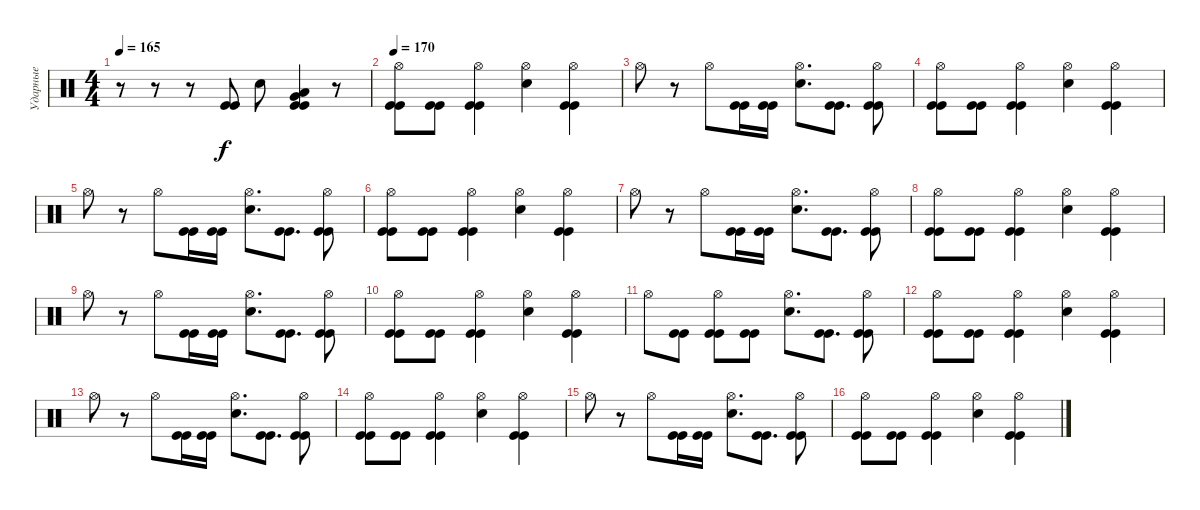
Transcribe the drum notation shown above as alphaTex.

\track ("Ударные" "Ударные") {instrument percussion}
\staff {score}
\articulation defaults
\ts (4 4)
\tempo 165
\clef neutral
\ks c
r.8{dy f} r.8 r.8 ("Kick (hit)" "Kick (hit)").8 "Snare (hit) 2".8 ("Very Low Tom (hit)" "Low Floor Tom (hit)" "Kick (hit)" "Kick (hit)").4 r.8 |
\tempo 170
("Hi-Hat (open)" "Kick (hit)" "Kick (hit)").8 ("Kick (hit)" "Kick (hit)").8 ("Hi-Hat (open)" "Kick (hit)" "Kick (hit)").4 ("Hi-Hat (open)" "Snare (hit) 2").4 ("Hi-Hat (open)" "Kick (hit)" "Kick (hit)").4 |
"Hi-Hat (open)".8 r.8 "Hi-Hat (open)".8 ("Kick (hit)" "Kick (hit)").16 ("Kick (hit)" "Kick (hit)").16 ("Hi-Hat (open)" "Snare (hit) 2").8{d} ("Kick (hit)" "Kick (hit)").8{d} ("Hi-Hat (open)" "Kick (hit)" "Kick (hit)").8 |
("Hi-Hat (open)" "Kick (hit)" "Kick (hit)").8 ("Kick (hit)" "Kick (hit)").8 ("Hi-Hat (open)" "Kick (hit)" "Kick (hit)").4 ("Hi-Hat (open)" "Snare (hit) 2").4 ("Hi-Hat (open)" "Kick (hit)" "Kick (hit)").4 |
"Hi-Hat (open)".8 r.8 "Hi-Hat (open)".8 ("Kick (hit)" "Kick (hit)").16 ("Kick (hit)" "Kick (hit)").16 ("Hi-Hat (open)" "Snare (hit) 2").8{d} ("Kick (hit)" "Kick (hit)").8{d} ("Hi-Hat (open)" "Kick (hit)" "Kick (hit)").8 |
("Hi-Hat (open)" "Kick (hit)" "Kick (hit)").8 ("Kick (hit)" "Kick (hit)").8 ("Hi-Hat (open)" "Kick (hit)" "Kick (hit)").4 ("Hi-Hat (open)" "Snare (hit) 2").4 ("Hi-Hat (open)" "Kick (hit)" "Kick (hit)").4 |
"Hi-Hat (open)".8 r.8 "Hi-Hat (open)".8 ("Kick (hit)" "Kick (hit)").16 ("Kick (hit)" "Kick (hit)").16 ("Hi-Hat (open)" "Snare (hit) 2").8{d} ("Kick (hit)" "Kick (hit)").8{d} ("Hi-Hat (open)" "Kick (hit)" "Kick (hit)").8 |
("Hi-Hat (open)" "Kick (hit)" "Kick (hit)").8 ("Kick (hit)" "Kick (hit)").8 ("Hi-Hat (open)" "Kick (hit)" "Kick (hit)").4 ("Hi-Hat (open)" "Snare (hit) 2").4 ("Hi-Hat (open)" "Kick (hit)" "Kick (hit)").4 |
"Hi-Hat (open)".8 r.8 "Hi-Hat (open)".8 ("Kick (hit)" "Kick (hit)").16 ("Kick (hit)" "Kick (hit)").16 ("Hi-Hat (open)" "Snare (hit) 2").8{d} ("Kick (hit)" "Kick (hit)").8{d} ("Hi-Hat (open)" "Kick (hit)" "Kick (hit)").8 |
("Hi-Hat (open)" "Kick (hit)" "Kick (hit)").8 ("Kick (hit)" "Kick (hit)").8 ("Hi-Hat (open)" "Kick (hit)" "Kick (hit)").4 ("Hi-Hat (open)" "Snare (hit) 2").4 ("Hi-Hat (open)" "Kick (hit)" "Kick (hit)").4 |
"Hi-Hat (open)".8 ("Kick (hit)" "Kick (hit)").8 ("Hi-Hat (open)" "Kick (hit)" "Kick (hit)").8 ("Kick (hit)" "Kick (hit)").8 ("Hi-Hat (open)" "Snare (hit) 2").8{d} ("Kick (hit)" "Kick (hit)").8{d} ("Hi-Hat (open)" "Kick (hit)" "Kick (hit)").8 |
("Hi-Hat (open)" "Kick (hit)" "Kick (hit)").8 ("Kick (hit)" "Kick (hit)").8 ("Hi-Hat (open)" "Kick (hit)" "Kick (hit)").4 ("Hi-Hat (open)" "Snare (hit) 2").4 ("Hi-Hat (open)" "Kick (hit)" "Kick (hit)").4 |
"Hi-Hat (open)".8 r.8 "Hi-Hat (open)".8 ("Kick (hit)" "Kick (hit)").16 ("Kick (hit)" "Kick (hit)").16 ("Hi-Hat (open)" "Snare (hit) 2").8{d} ("Kick (hit)" "Kick (hit)").8{d} ("Hi-Hat (open)" "Kick (hit)" "Kick (hit)").8 |
("Hi-Hat (open)" "Kick (hit)" "Kick (hit)").8 ("Kick (hit)" "Kick (hit)").8 ("Hi-Hat (open)" "Kick (hit)" "Kick (hit)").4 ("Hi-Hat (open)" "Snare (hit) 2").4 ("Hi-Hat (open)" "Kick (hit)" "Kick (hit)").4 |
"Hi-Hat (open)".8 r.8 "Hi-Hat (open)".8 ("Kick (hit)" "Kick (hit)").16 ("Kick (hit)" "Kick (hit)").16 ("Hi-Hat (open)" "Snare (hit) 2").8{d} ("Kick (hit)" "Kick (hit)").8{d} ("Hi-Hat (open)" "Kick (hit)" "Kick (hit)").8 |
("Hi-Hat (open)" "Kick (hit)" "Kick (hit)").8 ("Kick (hit)" "Kick (hit)").8 ("Hi-Hat (open)" "Kick (hit)" "Kick (hit)").4 ("Hi-Hat (open)" "Snare (hit) 2").4 ("Hi-Hat (open)" "Kick (hit)" "Kick (hit)").4
